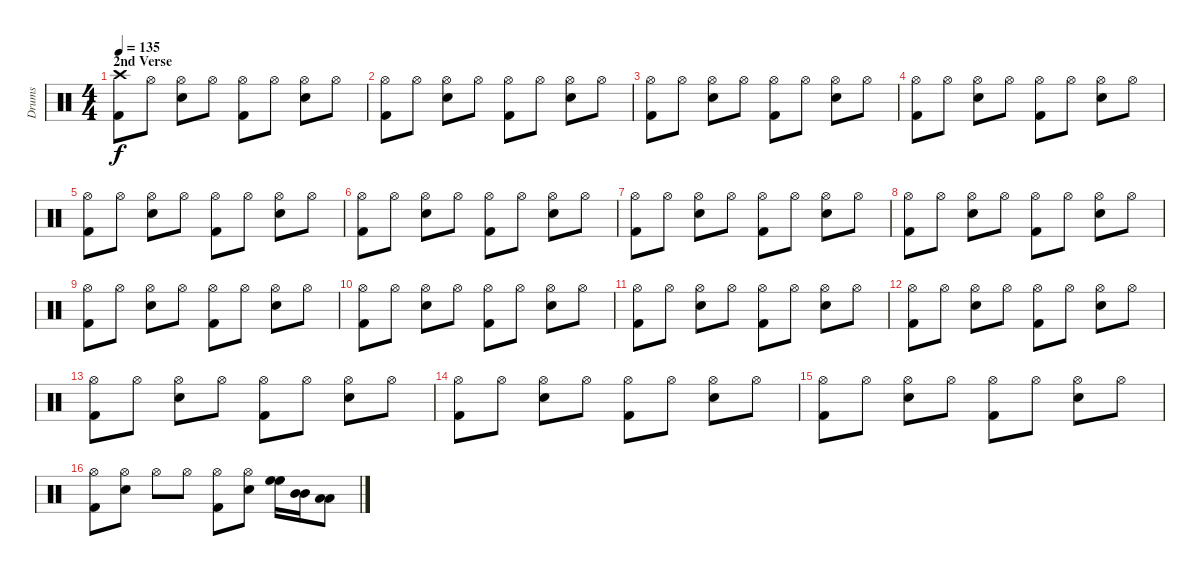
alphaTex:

\track ("Drums" "Drums") {instrument percussion}
\staff {score}
\articulation defaults
\ts (4 4)
\section ("" "2nd Verse")
\tempo 135
\clef neutral
\ks c
("Crash high (hit)" "Kick (hit) 2").8{dy f} "Hi-Hat (open)".8 ("Hi-Hat (open)" "Snare (hit) 2").8 "Hi-Hat (open)".8 ("Hi-Hat (open)" "Kick (hit) 2").8 "Hi-Hat (open)".8 ("Hi-Hat (open)" "Snare (hit) 2").8 "Hi-Hat (open)".8 |
("Hi-Hat (open)" "Kick (hit) 2").8 "Hi-Hat (open)".8 ("Hi-Hat (open)" "Snare (hit) 2").8 "Hi-Hat (open)".8 ("Hi-Hat (open)" "Kick (hit) 2").8 "Hi-Hat (open)".8 ("Hi-Hat (open)" "Snare (hit) 2").8 "Hi-Hat (open)".8 |
("Hi-Hat (open)" "Kick (hit) 2").8 "Hi-Hat (open)".8 ("Hi-Hat (open)" "Snare (hit) 2").8 "Hi-Hat (open)".8 ("Hi-Hat (open)" "Kick (hit) 2").8 "Hi-Hat (open)".8 ("Hi-Hat (open)" "Snare (hit) 2").8 "Hi-Hat (open)".8 |
("Hi-Hat (open)" "Kick (hit) 2").8 "Hi-Hat (open)".8 ("Hi-Hat (open)" "Snare (hit) 2").8 "Hi-Hat (open)".8 ("Hi-Hat (open)" "Kick (hit) 2").8 "Hi-Hat (open)".8 ("Hi-Hat (open)" "Snare (hit) 2").8 "Hi-Hat (open)".8 |
("Hi-Hat (open)" "Kick (hit) 2").8 "Hi-Hat (open)".8 ("Hi-Hat (open)" "Snare (hit) 2").8 "Hi-Hat (open)".8 ("Hi-Hat (open)" "Kick (hit) 2").8 "Hi-Hat (open)".8 ("Hi-Hat (open)" "Snare (hit) 2").8 "Hi-Hat (open)".8 |
("Hi-Hat (open)" "Kick (hit) 2").8 "Hi-Hat (open)".8 ("Hi-Hat (open)" "Snare (hit) 2").8 "Hi-Hat (open)".8 ("Hi-Hat (open)" "Kick (hit) 2").8 "Hi-Hat (open)".8 ("Hi-Hat (open)" "Snare (hit) 2").8 "Hi-Hat (open)".8 |
("Hi-Hat (open)" "Kick (hit) 2").8 "Hi-Hat (open)".8 ("Hi-Hat (open)" "Snare (hit) 2").8 "Hi-Hat (open)".8 ("Hi-Hat (open)" "Kick (hit) 2").8 "Hi-Hat (open)".8 ("Hi-Hat (open)" "Snare (hit) 2").8 "Hi-Hat (open)".8 |
("Hi-Hat (open)" "Kick (hit) 2").8 "Hi-Hat (open)".8 ("Hi-Hat (open)" "Snare (hit) 2").8 "Hi-Hat (open)".8 ("Hi-Hat (open)" "Kick (hit) 2").8 "Hi-Hat (open)".8 ("Hi-Hat (open)" "Snare (hit) 2").8 "Hi-Hat (open)".8 |
("Hi-Hat (open)" "Kick (hit) 2").8 "Hi-Hat (open)".8 ("Hi-Hat (open)" "Snare (hit) 2").8 "Hi-Hat (open)".8 ("Hi-Hat (open)" "Kick (hit) 2").8 "Hi-Hat (open)".8 ("Hi-Hat (open)" "Snare (hit) 2").8 "Hi-Hat (open)".8 |
("Hi-Hat (open)" "Kick (hit) 2").8 "Hi-Hat (open)".8 ("Hi-Hat (open)" "Snare (hit) 2").8 "Hi-Hat (open)".8 ("Hi-Hat (open)" "Kick (hit) 2").8 "Hi-Hat (open)".8 ("Hi-Hat (open)" "Snare (hit) 2").8 "Hi-Hat (open)".8 |
("Hi-Hat (open)" "Kick (hit) 2").8 "Hi-Hat (open)".8 ("Hi-Hat (open)" "Snare (hit) 2").8 "Hi-Hat (open)".8 ("Hi-Hat (open)" "Kick (hit) 2").8 "Hi-Hat (open)".8 ("Hi-Hat (open)" "Snare (hit) 2").8 "Hi-Hat (open)".8 |
("Hi-Hat (open)" "Kick (hit) 2").8 "Hi-Hat (open)".8 ("Hi-Hat (open)" "Snare (hit) 2").8 "Hi-Hat (open)".8 ("Hi-Hat (open)" "Kick (hit) 2").8 "Hi-Hat (open)".8 ("Hi-Hat (open)" "Snare (hit) 2").8 "Hi-Hat (open)".8 |
("Hi-Hat (open)" "Kick (hit) 2").8 "Hi-Hat (open)".8 ("Hi-Hat (open)" "Snare (hit) 2").8 "Hi-Hat (open)".8 ("Hi-Hat (open)" "Kick (hit) 2").8 "Hi-Hat (open)".8 ("Hi-Hat (open)" "Snare (hit) 2").8 "Hi-Hat (open)".8 |
("Hi-Hat (open)" "Kick (hit) 2").8 "Hi-Hat (open)".8 ("Hi-Hat (open)" "Snare (hit) 2").8 "Hi-Hat (open)".8 ("Hi-Hat (open)" "Kick (hit) 2").8 "Hi-Hat (open)".8 ("Hi-Hat (open)" "Snare (hit) 2").8 "Hi-Hat (open)".8 |
("Hi-Hat (open)" "Kick (hit) 2").8 "Hi-Hat (open)".8 ("Hi-Hat (open)" "Snare (hit) 2").8 "Hi-Hat (open)".8 ("Hi-Hat (open)" "Kick (hit) 2").8 "Hi-Hat (open)".8 ("Hi-Hat (open)" "Snare (hit) 2").8 "Hi-Hat (open)".8 |
("Hi-Hat (open)" "Kick (hit) 2").8 ("Hi-Hat (open)" "Snare (hit) 2").8 "Hi-Hat (open)".8 "Hi-Hat (open)".8 ("Hi-Hat (open)" "Kick (hit) 2").8 ("Hi-Hat (open)" "Snare (hit) 2").8 ("High Floor Tom (hit)" "High Floor Tom (hit)").16 ("Mid Tom (hit)" "Mid Tom (hit)").16 ("Low Tom (hit)" "Low Tom (hit)").8
